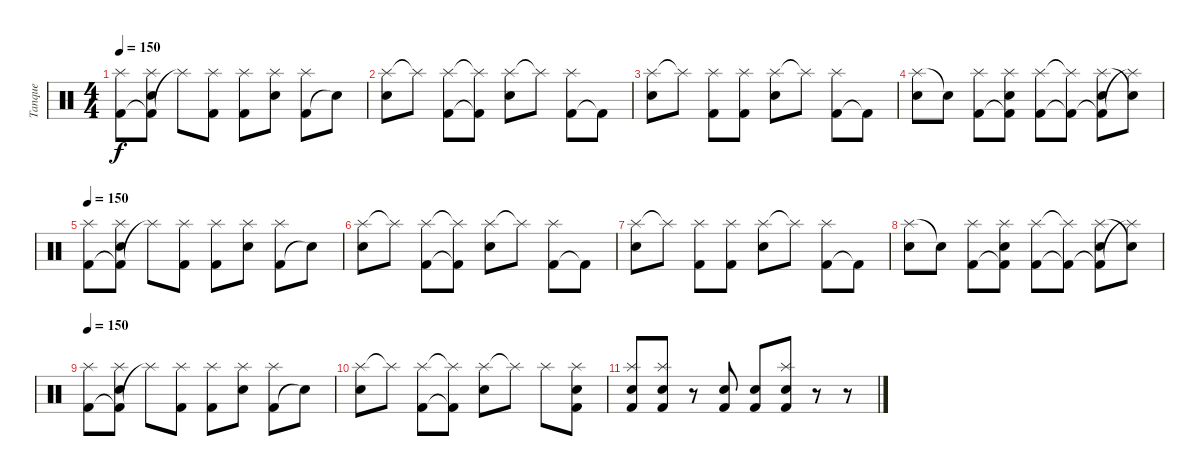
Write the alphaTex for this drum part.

\track ("Tanque" "Tanque") {instrument percussion}
\staff {score}
\articulation defaults
\ts (4 4)
\tempo 150
\clef neutral
\ks c
("Kick (hit) 2" "Splash (hit)").8{dy f} ("Kick (hit) 2"{t} "Splash (hit)" "Snare (hit) 2").8 "Splash (hit)"{t}.8 ("Kick (hit) 2" "Splash (hit)").8 ("Kick (hit) 2" "Splash (hit)").8 ("Splash (hit)" "Snare (hit) 2").8 ("Kick (hit) 2" "Splash (hit)").8 "Snare (hit)"{t}.8 |
("Splash (hit)" "Snare (hit) 2").8 "Splash (hit)"{t}.8 ("Kick (hit) 2" "Splash (hit)").8 ("Kick (hit) 2"{t} "Splash (hit)"{t}).8 ("Splash (hit)" "Snare (hit) 2").8 "Splash (hit)"{t}.8 ("Kick (hit) 2" "Splash (hit)").8 "Kick (hit) 2"{t}.8 |
("Splash (hit)" "Snare (hit) 2").8 "Splash (hit)"{t}.8 ("Kick (hit) 2" "Splash (hit)").8 ("Kick (hit) 2" "Splash (hit)").8 ("Splash (hit)" "Snare (hit) 2").8 "Splash (hit)"{t}.8 ("Kick (hit) 2" "Splash (hit)").8 "Kick (hit) 2"{t}.8 |
("Splash (hit)" "Snare (hit) 2").8 "Snare (hit)"{t}.8 ("Kick (hit) 2" "Splash (hit)").8 ("Kick (hit) 2"{t} "Splash (hit)" "Snare (hit) 2").8 ("Kick (hit) 2" "Splash (hit)").8 ("Kick (hit) 2"{t} "Splash (hit)"{t}).8 ("Kick (hit) 2"{t} "Splash (hit)" "Snare (hit) 2").8 ("Splash (hit)"{t} "Snare (hit) 2"{t}).8 |
\tempo 150
("Kick (hit) 2" "Splash (hit)").8 ("Kick (hit) 2"{t} "Splash (hit)" "Snare (hit) 2").8 "Splash (hit)"{t}.8 ("Kick (hit) 2" "Splash (hit)").8 ("Kick (hit) 2" "Splash (hit)").8 ("Splash (hit)" "Snare (hit) 2").8 ("Kick (hit) 2" "Splash (hit)").8 "Snare (hit)"{t}.8 |
("Splash (hit)" "Snare (hit) 2").8 "Splash (hit)"{t}.8 ("Kick (hit) 2" "Splash (hit)").8 ("Kick (hit) 2"{t} "Splash (hit)"{t}).8 ("Splash (hit)" "Snare (hit) 2").8 "Splash (hit)"{t}.8 ("Kick (hit) 2" "Splash (hit)").8 "Kick (hit) 2"{t}.8 |
("Splash (hit)" "Snare (hit) 2").8 "Splash (hit)"{t}.8 ("Kick (hit) 2" "Splash (hit)").8 ("Kick (hit) 2" "Splash (hit)").8 ("Splash (hit)" "Snare (hit) 2").8 "Splash (hit)"{t}.8 ("Kick (hit) 2" "Splash (hit)").8 "Kick (hit) 2"{t}.8 |
("Splash (hit)" "Snare (hit) 2").8 "Snare (hit)"{t}.8 ("Kick (hit) 2" "Splash (hit)").8 ("Kick (hit) 2"{t} "Splash (hit)" "Snare (hit) 2").8 ("Kick (hit) 2" "Splash (hit)").8 ("Kick (hit) 2"{t} "Splash (hit)"{t}).8 ("Kick (hit) 2"{t} "Splash (hit)" "Snare (hit) 2").8 ("Splash (hit)"{t} "Snare (hit) 2"{t}).8 |
\tempo 150
("Kick (hit) 2" "Splash (hit)").8 ("Kick (hit) 2"{t} "Splash (hit)" "Snare (hit) 2").8 "Splash (hit)"{t}.8 ("Kick (hit) 2" "Splash (hit)").8 ("Kick (hit) 2" "Splash (hit)").8 ("Splash (hit)" "Snare (hit) 2").8 ("Kick (hit) 2" "Splash (hit)").8 "Snare (hit)"{t}.8 |
("Splash (hit)" "Snare (hit) 2").8 "Splash (hit)"{t}.8 ("Kick (hit) 2" "Splash (hit)").8 ("Kick (hit) 2"{t} "Splash (hit)"{t}).8 ("Splash (hit)" "Snare (hit) 2").8 "Splash (hit)"{t}.8 "Splash (hit)".8 ("Kick (hit) 2" "Splash (hit)" "Snare (hit) 2").8 |
("Kick (hit) 2" "Splash (hit)" "Snare (hit) 2").8 ("Kick (hit) 2" "Splash (hit)" "Snare (hit) 2").8 r.8 ("Kick (hit) 2" "Snare (hit) 2").8 ("Kick (hit) 2" "Snare (hit) 2").8 ("Kick (hit) 2" "Splash (hit)" "Snare (hit) 2").8 r.8 r.8
